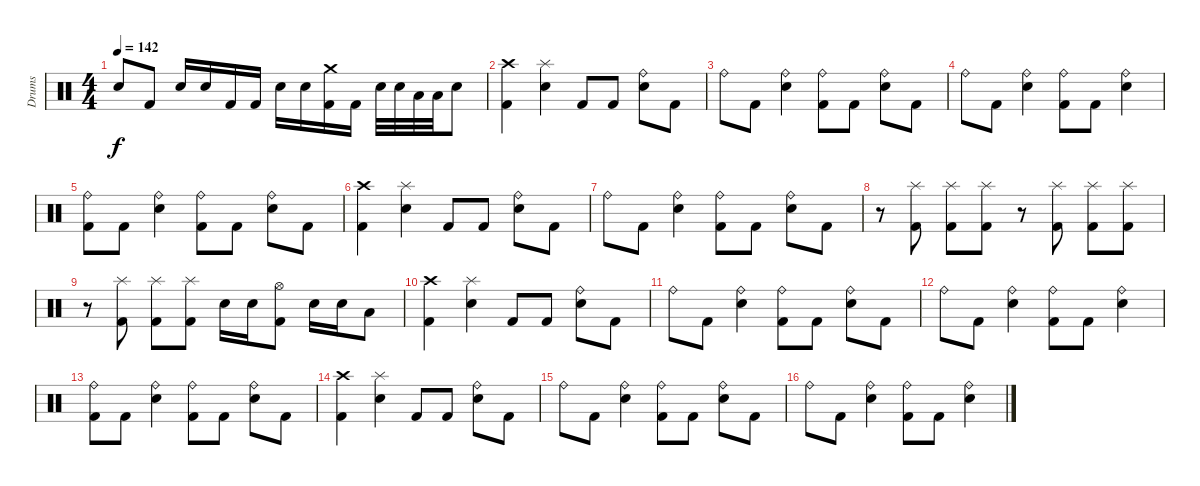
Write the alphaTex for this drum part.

\track ("Drums" "Drums") {instrument percussion}
\staff {score}
\articulation defaults
\ts (4 4)
\tempo 142
\clef neutral
\ks c "Snare (hit) 2".8{dy f} "Kick (hit) 2".8 "Snare (hit) 2".16 "Snare (hit) 2".16 "Kick (hit) 2".16 "Kick (hit) 2".16 "Snare (hit) 2".16 "Snare (hit) 2".16
("Kick (hit) 2" "Crash medium (hit)").16 "Kick (hit) 2".16 "Snare (hit) 2".32 "Snare (hit) 2".32 "Low Tom (hit)".32 "Low Tom (hit)".32 "Snare (hit) 2".8 |
("Kick (hit) 2" "Crash high (hit)").4 ("Snare (hit) 2" "Splash (hit)").4 "Kick (hit) 2".8 "Kick (hit) 2".8 ("Snare (hit) 2" "Ride (bell)").8 "Kick (hit) 2".8 |
"Ride (bell)".8 "Kick (hit) 2".8 ("Snare (hit) 2" "Ride (bell)").4 ("Kick (hit) 2" "Ride (bell)").8 "Kick (hit) 2".8 ("Snare (hit) 2" "Ride (bell)").8 "Kick (hit) 2".8 |
"Ride (bell)".8 "Kick (hit) 2".8 ("Snare (hit) 2" "Ride (bell)").4 ("Kick (hit) 2" "Ride (bell)").8 "Kick (hit) 2".8 ("Snare (hit) 2" "Ride (bell)").4 |
("Kick (hit) 2" "Ride (bell)").8 "Kick (hit) 2".8 ("Snare (hit) 2" "Ride (bell)").4 ("Kick (hit) 2" "Ride (bell)").8 "Kick (hit) 2".8 ("Snare (hit) 2" "Ride (bell)").8 "Kick (hit) 2".8 |
("Kick (hit) 2" "Crash high (hit)").4 ("Snare (hit) 2" "Splash (hit)").4 "Kick (hit) 2".8 "Kick (hit) 2".8 ("Snare (hit) 2" "Ride (bell)").8 "Kick (hit) 2".8 |
"Ride (bell)".8 "Kick (hit) 2".8 ("Snare (hit) 2" "Ride (bell)").4 ("Kick (hit) 2" "Ride (bell)").8 "Kick (hit) 2".8 ("Snare (hit) 2" "Ride (bell)").8 "Kick (hit) 2".8 |
r.8 ("Kick (hit) 2" "Splash (hit)").8 ("Kick (hit) 2" "Splash (hit)").8 ("Kick (hit) 2" "Splash (hit)").8 r.8 ("Kick (hit) 2" "Splash (hit)").8 ("Kick (hit) 2" "Splash (hit)").8 ("Kick (hit) 2" "Splash (hit)").8 |
r.8 ("Kick (hit) 2" "Splash (hit)").8 ("Kick (hit) 2" "Splash (hit)").8 ("Kick (hit) 2" "Splash (hit)").8 "Snare (hit) 2".16 "Snare (hit) 2".16 ("Kick (hit) 2" "Hi-Hat (open)").8 "Snare (hit) 2".16 "Snare (hit) 2".16 "Low Tom (hit)".8 |
("Kick (hit) 2" "Crash high (hit)").4 ("Snare (hit) 2" "Splash (hit)").4 "Kick (hit) 2".8 "Kick (hit) 2".8 ("Snare (hit) 2" "Ride (bell)").8 "Kick (hit) 2".8 |
"Ride (bell)".8 "Kick (hit) 2".8 ("Snare (hit) 2" "Ride (bell)").4 ("Kick (hit) 2" "Ride (bell)").8 "Kick (hit) 2".8 ("Snare (hit) 2" "Ride (bell)").8 "Kick (hit) 2".8 |
"Ride (bell)".8 "Kick (hit) 2".8 ("Snare (hit) 2" "Ride (bell)").4 ("Kick (hit) 2" "Ride (bell)").8 "Kick (hit) 2".8 ("Snare (hit) 2" "Ride (bell)").4 |
("Kick (hit) 2" "Ride (bell)").8 "Kick (hit) 2".8 ("Snare (hit) 2" "Ride (bell)").4 ("Kick (hit) 2" "Ride (bell)").8 "Kick (hit) 2".8 ("Snare (hit) 2" "Ride (bell)").8 "Kick (hit) 2".8 |
("Kick (hit) 2" "Crash high (hit)").4 ("Snare (hit) 2" "Splash (hit)").4 "Kick (hit) 2".8 "Kick (hit) 2".8 ("Snare (hit) 2" "Ride (bell)").8 "Kick (hit) 2".8 |
"Ride (bell)".8 "Kick (hit) 2".8 ("Snare (hit) 2" "Ride (bell)").4 ("Kick (hit) 2" "Ride (bell)").8 "Kick (hit) 2".8 ("Snare (hit) 2" "Ride (bell)").8 "Kick (hit) 2".8 |
"Ride (bell)".8 "Kick (hit) 2".8 ("Snare (hit) 2" "Ride (bell)").4 ("Kick (hit) 2" "Ride (bell)").8 "Kick (hit) 2".8 ("Snare (hit) 2" "Ride (bell)").4
